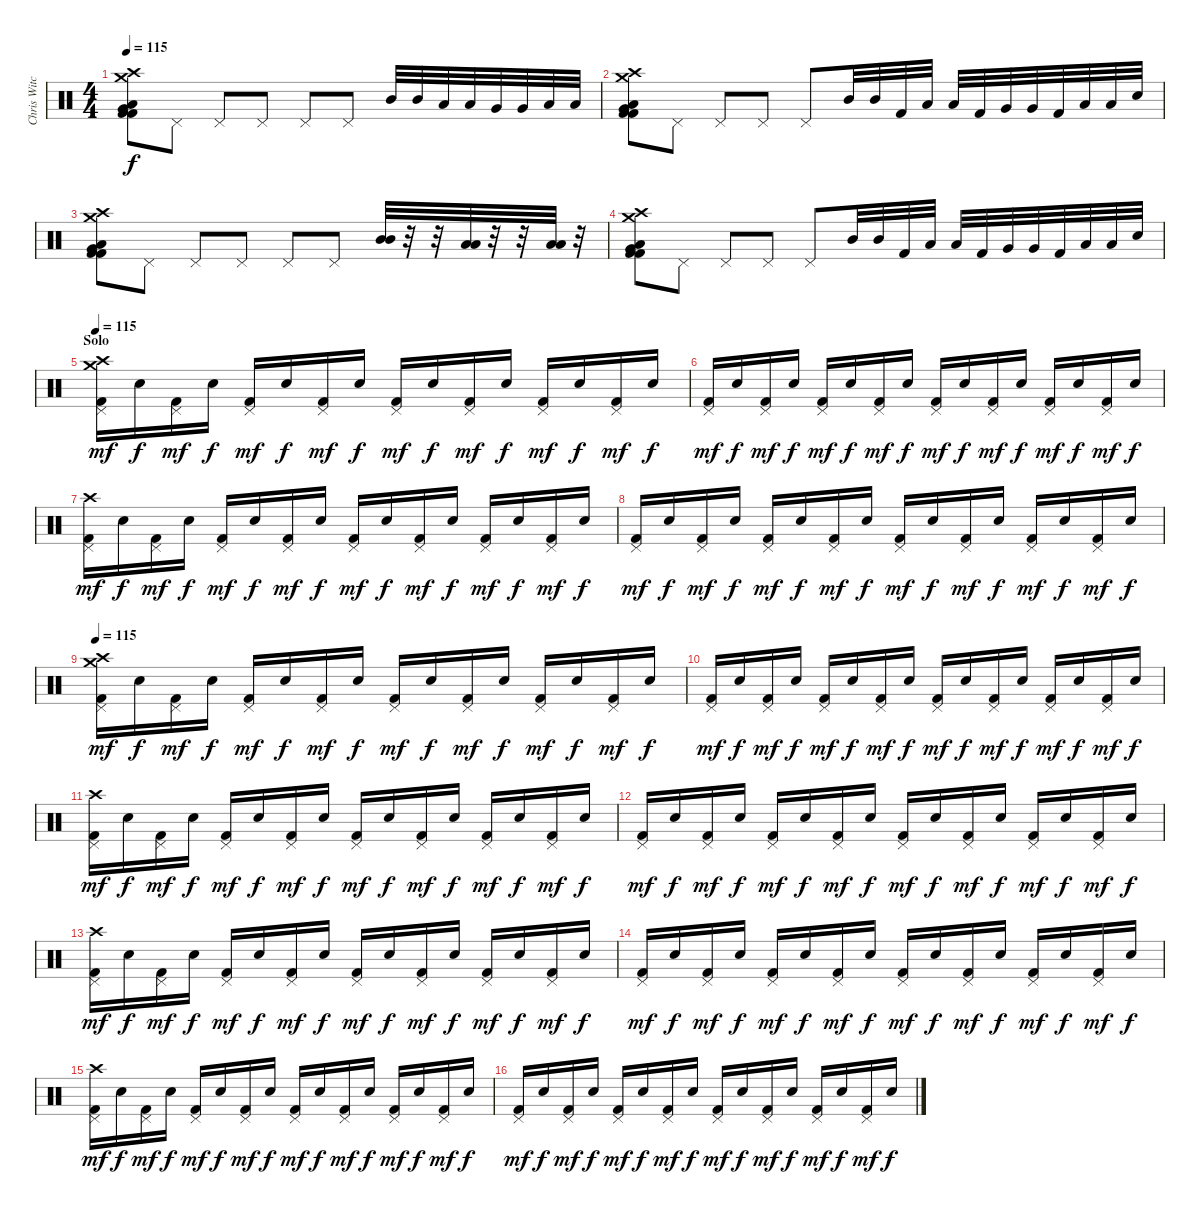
\track ("Chris Witchhunter (Drums)" "Chris Witc") {instrument percussion}
\staff {score}
\articulation defaults
\ts (4 4)
\tempo 115
\clef neutral
\ks c
("Crash medium (hit)" "Crash high (hit)" "Very Low Tom (hit)" "Low Floor Tom (hit)" "Kick (hit) 2" "Kick (hit) 2").8{dy f} "Pedal Hi-Hat (hit)".8 "Pedal Hi-Hat (hit)".8 "Pedal Hi-Hat (hit)".8 "Pedal Hi-Hat (hit)".8 "Pedal Hi-Hat (hit)".8 "Mid Tom (hit)".32 "Mid Tom (hit)".32 "Low Tom (hit)".32 "Low Tom (hit)".32 "Very Low Tom (hit)".32 "Very Low Tom (hit)".32 "Low Floor Tom (hit)".32 "Low Floor Tom (hit)".32 |
("Crash medium (hit)" "Crash high (hit)" "Very Low Tom (hit)" "Low Floor Tom (hit)" "Kick (hit) 2" "Kick (hit) 2").8 "Pedal Hi-Hat (hit)".8 "Pedal Hi-Hat (hit)".8 "Pedal Hi-Hat (hit)".8 "Pedal Hi-Hat (hit)".8 "Mid Tom (hit)".32 "Mid Tom (hit)".32 "Kick (hit) 2".32 "Low Tom (hit)".32 "Low Tom (hit)".32 "Kick (hit) 2".32 "Very Low Tom (hit)".32 "Very Low Tom (hit)".32 "Kick (hit) 2".32 "Low Floor Tom (hit)".32 "Low Floor Tom (hit)".32 "Snare (hit) 2".32 |
("Crash medium (hit)" "Crash high (hit)" "Very Low Tom (hit)" "Low Floor Tom (hit)" "Kick (hit) 2" "Kick (hit) 2").8 "Pedal Hi-Hat (hit)".8 "Pedal Hi-Hat (hit)".8 "Pedal Hi-Hat (hit)".8 "Pedal Hi-Hat (hit)".8 "Pedal Hi-Hat (hit)".8 ("Mid Tom (hit)" "Mid Tom (hit)").32 r.32 r.32 ("Low Tom (hit)" "Low Tom (hit)").32 r.32 r.32 ("Low Floor Tom (hit)" "Low Floor Tom (hit)").32 r.32 |
("Crash medium (hit)" "Crash high (hit)" "Very Low Tom (hit)" "Low Floor Tom (hit)" "Kick (hit) 2" "Kick (hit) 2").8 "Pedal Hi-Hat (hit)".8 "Pedal Hi-Hat (hit)".8 "Pedal Hi-Hat (hit)".8 "Pedal Hi-Hat (hit)".8 "Mid Tom (hit)".32 "Mid Tom (hit)".32 "Kick (hit) 2".32 "Low Tom (hit)".32 "Low Tom (hit)".32 "Kick (hit) 2".32 "Very Low Tom (hit)".32 "Very Low Tom (hit)".32 "Kick (hit) 2".32 "Low Floor Tom (hit)".32 "Low Floor Tom (hit)".32 "Snare (hit) 2".32 |
\section ("" "Solo")
\tempo 115
("Crash high (hit)" "Crash medium (hit)" "Pedal Hi-Hat (hit)" "Kick (hit) 2").16{dy mf} "Snare (hit) 2".16{dy f} ("Pedal Hi-Hat (hit)" "Kick (hit) 2").16{dy mf} "Snare (hit) 2".16{dy f} ("Pedal Hi-Hat (hit)" "Kick (hit) 2").16{dy mf} "Snare (hit) 2".16{dy f} ("Pedal Hi-Hat (hit)" "Kick (hit) 2").16{dy mf} "Snare (hit) 2".16{dy f} ("Pedal Hi-Hat (hit)" "Kick (hit) 2").16{dy mf} "Snare (hit) 2".16{dy f} ("Pedal Hi-Hat (hit)" "Kick (hit) 2").16{dy mf} "Snare (hit) 2".16{dy f} ("Pedal Hi-Hat (hit)" "Kick (hit) 2").16{dy mf} "Snare (hit) 2".16{dy f} ("Pedal Hi-Hat (hit)" "Kick (hit) 2").16{dy mf} "Snare (hit) 2".16{dy f} |
("Pedal Hi-Hat (hit)" "Kick (hit) 2").16{dy mf} "Snare (hit) 2".16{dy f} ("Pedal Hi-Hat (hit)" "Kick (hit) 2").16{dy mf} "Snare (hit) 2".16{dy f} ("Pedal Hi-Hat (hit)" "Kick (hit) 2").16{dy mf} "Snare (hit) 2".16{dy f} ("Pedal Hi-Hat (hit)" "Kick (hit) 2").16{dy mf} "Snare (hit) 2".16{dy f} ("Pedal Hi-Hat (hit)" "Kick (hit) 2").16{dy mf} "Snare (hit) 2".16{dy f} ("Pedal Hi-Hat (hit)" "Kick (hit) 2").16{dy mf} "Snare (hit) 2".16{dy f} ("Pedal Hi-Hat (hit)" "Kick (hit) 2").16{dy mf} "Snare (hit) 2".16{dy f} ("Pedal Hi-Hat (hit)" "Kick (hit) 2").16{dy mf} "Snare (hit) 2".16{dy f} |
("Crash high (hit)" "Pedal Hi-Hat (hit)" "Kick (hit) 2").16{dy mf} "Snare (hit) 2".16{dy f} ("Pedal Hi-Hat (hit)" "Kick (hit) 2").16{dy mf} "Snare (hit) 2".16{dy f} ("Pedal Hi-Hat (hit)" "Kick (hit) 2").16{dy mf} "Snare (hit) 2".16{dy f} ("Pedal Hi-Hat (hit)" "Kick (hit) 2").16{dy mf} "Snare (hit) 2".16{dy f} ("Pedal Hi-Hat (hit)" "Kick (hit) 2").16{dy mf} "Snare (hit) 2".16{dy f} ("Pedal Hi-Hat (hit)" "Kick (hit) 2").16{dy mf} "Snare (hit) 2".16{dy f} ("Pedal Hi-Hat (hit)" "Kick (hit) 2").16{dy mf} "Snare (hit) 2".16{dy f} ("Pedal Hi-Hat (hit)" "Kick (hit) 2").16{dy mf} "Snare (hit) 2".16{dy f} |
("Pedal Hi-Hat (hit)" "Kick (hit) 2").16{dy mf} "Snare (hit) 2".16{dy f} ("Pedal Hi-Hat (hit)" "Kick (hit) 2").16{dy mf} "Snare (hit) 2".16{dy f} ("Pedal Hi-Hat (hit)" "Kick (hit) 2").16{dy mf} "Snare (hit) 2".16{dy f} ("Pedal Hi-Hat (hit)" "Kick (hit) 2").16{dy mf} "Snare (hit) 2".16{dy f} ("Pedal Hi-Hat (hit)" "Kick (hit) 2").16{dy mf} "Snare (hit) 2".16{dy f} ("Pedal Hi-Hat (hit)" "Kick (hit) 2").16{dy mf} "Snare (hit) 2".16{dy f} ("Pedal Hi-Hat (hit)" "Kick (hit) 2").16{dy mf} "Snare (hit) 2".16{dy f} ("Pedal Hi-Hat (hit)" "Kick (hit) 2").16{dy mf} "Snare (hit) 2".16{dy f} |
\tempo 115
("Crash high (hit)" "Crash medium (hit)" "Pedal Hi-Hat (hit)" "Kick (hit) 2").16{dy mf} "Snare (hit) 2".16{dy f} ("Pedal Hi-Hat (hit)" "Kick (hit) 2").16{dy mf} "Snare (hit) 2".16{dy f} ("Pedal Hi-Hat (hit)" "Kick (hit) 2").16{dy mf} "Snare (hit) 2".16{dy f} ("Pedal Hi-Hat (hit)" "Kick (hit) 2").16{dy mf} "Snare (hit) 2".16{dy f} ("Pedal Hi-Hat (hit)" "Kick (hit) 2").16{dy mf} "Snare (hit) 2".16{dy f} ("Pedal Hi-Hat (hit)" "Kick (hit) 2").16{dy mf} "Snare (hit) 2".16{dy f} ("Pedal Hi-Hat (hit)" "Kick (hit) 2").16{dy mf} "Snare (hit) 2".16{dy f} ("Pedal Hi-Hat (hit)" "Kick (hit) 2").16{dy mf} "Snare (hit) 2".16{dy f} |
("Pedal Hi-Hat (hit)" "Kick (hit) 2").16{dy mf} "Snare (hit) 2".16{dy f} ("Pedal Hi-Hat (hit)" "Kick (hit) 2").16{dy mf} "Snare (hit) 2".16{dy f} ("Pedal Hi-Hat (hit)" "Kick (hit) 2").16{dy mf} "Snare (hit) 2".16{dy f} ("Pedal Hi-Hat (hit)" "Kick (hit) 2").16{dy mf} "Snare (hit) 2".16{dy f} ("Pedal Hi-Hat (hit)" "Kick (hit) 2").16{dy mf} "Snare (hit) 2".16{dy f} ("Pedal Hi-Hat (hit)" "Kick (hit) 2").16{dy mf} "Snare (hit) 2".16{dy f} ("Pedal Hi-Hat (hit)" "Kick (hit) 2").16{dy mf} "Snare (hit) 2".16{dy f} ("Pedal Hi-Hat (hit)" "Kick (hit) 2").16{dy mf} "Snare (hit) 2".16{dy f} |
("Crash high (hit)" "Pedal Hi-Hat (hit)" "Kick (hit) 2").16{dy mf} "Snare (hit) 2".16{dy f} ("Pedal Hi-Hat (hit)" "Kick (hit) 2").16{dy mf} "Snare (hit) 2".16{dy f} ("Pedal Hi-Hat (hit)" "Kick (hit) 2").16{dy mf} "Snare (hit) 2".16{dy f} ("Pedal Hi-Hat (hit)" "Kick (hit) 2").16{dy mf} "Snare (hit) 2".16{dy f} ("Pedal Hi-Hat (hit)" "Kick (hit) 2").16{dy mf} "Snare (hit) 2".16{dy f} ("Pedal Hi-Hat (hit)" "Kick (hit) 2").16{dy mf} "Snare (hit) 2".16{dy f} ("Pedal Hi-Hat (hit)" "Kick (hit) 2").16{dy mf} "Snare (hit) 2".16{dy f} ("Pedal Hi-Hat (hit)" "Kick (hit) 2").16{dy mf} "Snare (hit) 2".16{dy f} |
("Pedal Hi-Hat (hit)" "Kick (hit) 2").16{dy mf} "Snare (hit) 2".16{dy f} ("Pedal Hi-Hat (hit)" "Kick (hit) 2").16{dy mf} "Snare (hit) 2".16{dy f} ("Pedal Hi-Hat (hit)" "Kick (hit) 2").16{dy mf} "Snare (hit) 2".16{dy f} ("Pedal Hi-Hat (hit)" "Kick (hit) 2").16{dy mf} "Snare (hit) 2".16{dy f} ("Pedal Hi-Hat (hit)" "Kick (hit) 2").16{dy mf} "Snare (hit) 2".16{dy f} ("Pedal Hi-Hat (hit)" "Kick (hit) 2").16{dy mf} "Snare (hit) 2".16{dy f} ("Pedal Hi-Hat (hit)" "Kick (hit) 2").16{dy mf} "Snare (hit) 2".16{dy f} ("Pedal Hi-Hat (hit)" "Kick (hit) 2").16{dy mf} "Snare (hit) 2".16{dy f} |
("Crash high (hit)" "Pedal Hi-Hat (hit)" "Kick (hit) 2").16{dy mf} "Snare (hit) 2".16{dy f} ("Pedal Hi-Hat (hit)" "Kick (hit) 2").16{dy mf} "Snare (hit) 2".16{dy f} ("Pedal Hi-Hat (hit)" "Kick (hit) 2").16{dy mf} "Snare (hit) 2".16{dy f} ("Pedal Hi-Hat (hit)" "Kick (hit) 2").16{dy mf} "Snare (hit) 2".16{dy f} ("Pedal Hi-Hat (hit)" "Kick (hit) 2").16{dy mf} "Snare (hit) 2".16{dy f} ("Pedal Hi-Hat (hit)" "Kick (hit) 2").16{dy mf} "Snare (hit) 2".16{dy f} ("Pedal Hi-Hat (hit)" "Kick (hit) 2").16{dy mf} "Snare (hit) 2".16{dy f} ("Pedal Hi-Hat (hit)" "Kick (hit) 2").16{dy mf} "Snare (hit) 2".16{dy f} |
("Pedal Hi-Hat (hit)" "Kick (hit) 2").16{dy mf} "Snare (hit) 2".16{dy f} ("Pedal Hi-Hat (hit)" "Kick (hit) 2").16{dy mf} "Snare (hit) 2".16{dy f} ("Pedal Hi-Hat (hit)" "Kick (hit) 2").16{dy mf} "Snare (hit) 2".16{dy f} ("Pedal Hi-Hat (hit)" "Kick (hit) 2").16{dy mf} "Snare (hit) 2".16{dy f} ("Pedal Hi-Hat (hit)" "Kick (hit) 2").16{dy mf} "Snare (hit) 2".16{dy f} ("Pedal Hi-Hat (hit)" "Kick (hit) 2").16{dy mf} "Snare (hit) 2".16{dy f} ("Pedal Hi-Hat (hit)" "Kick (hit) 2").16{dy mf} "Snare (hit) 2".16{dy f} ("Pedal Hi-Hat (hit)" "Kick (hit) 2").16{dy mf} "Snare (hit) 2".16{dy f} |
("Crash high (hit)" "Pedal Hi-Hat (hit)" "Kick (hit) 2").16{dy mf} "Snare (hit) 2".16{dy f} ("Pedal Hi-Hat (hit)" "Kick (hit) 2").16{dy mf} "Snare (hit) 2".16{dy f} ("Pedal Hi-Hat (hit)" "Kick (hit) 2").16{dy mf} "Snare (hit) 2".16{dy f} ("Pedal Hi-Hat (hit)" "Kick (hit) 2").16{dy mf} "Snare (hit) 2".16{dy f} ("Pedal Hi-Hat (hit)" "Kick (hit) 2").16{dy mf} "Snare (hit) 2".16{dy f} ("Pedal Hi-Hat (hit)" "Kick (hit) 2").16{dy mf} "Snare (hit) 2".16{dy f} ("Pedal Hi-Hat (hit)" "Kick (hit) 2").16{dy mf} "Snare (hit) 2".16{dy f} ("Pedal Hi-Hat (hit)" "Kick (hit) 2").16{dy mf} "Snare (hit) 2".16{dy f} |
("Pedal Hi-Hat (hit)" "Kick (hit) 2").16{dy mf} "Snare (hit) 2".16{dy f} ("Pedal Hi-Hat (hit)" "Kick (hit) 2").16{dy mf} "Snare (hit) 2".16{dy f} ("Pedal Hi-Hat (hit)" "Kick (hit) 2").16{dy mf} "Snare (hit) 2".16{dy f} ("Pedal Hi-Hat (hit)" "Kick (hit) 2").16{dy mf} "Snare (hit) 2".16{dy f} ("Pedal Hi-Hat (hit)" "Kick (hit) 2").16{dy mf} "Snare (hit) 2".16{dy f} ("Pedal Hi-Hat (hit)" "Kick (hit) 2").16{dy mf} "Snare (hit) 2".16{dy f} ("Pedal Hi-Hat (hit)" "Kick (hit) 2").16{dy mf} "Snare (hit) 2".16{dy f} ("Pedal Hi-Hat (hit)" "Kick (hit) 2").16{dy mf} "Snare (hit) 2".16{dy f}
